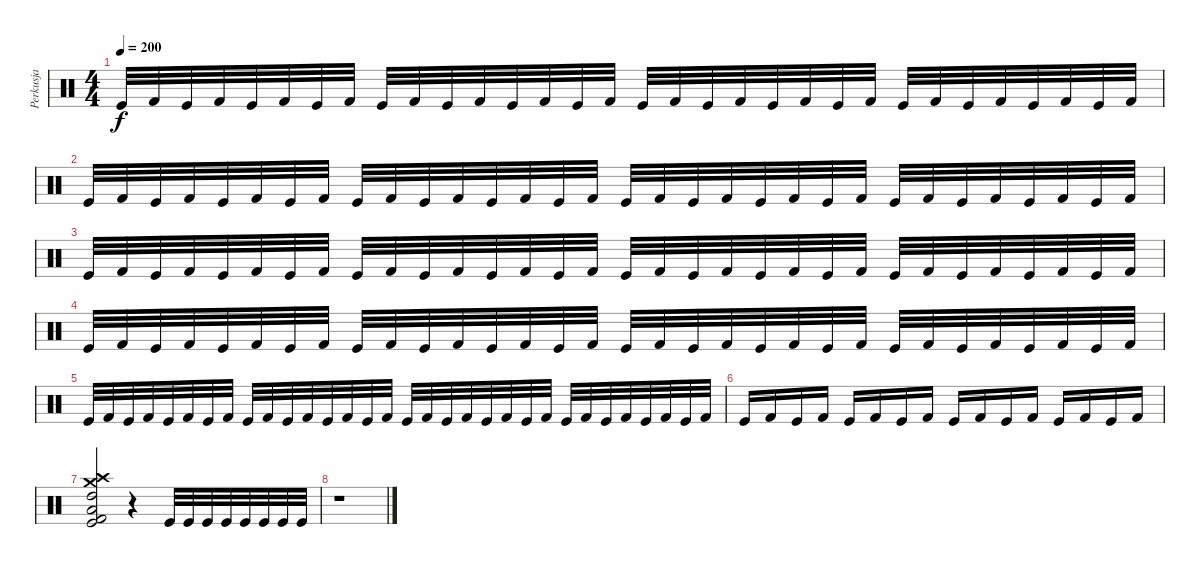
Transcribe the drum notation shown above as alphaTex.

\track ("Perkusja" "Perkusja") {instrument percussion}
\staff {score}
\articulation defaults
\ts (4 4)
\tempo 200
\clef neutral
\ks c "Kick (hit)".32{dy f} "Kick (hit) 2".32 "Kick (hit)".32 "Kick (hit) 2".32 "Kick (hit)".32 "Kick (hit) 2".32 "Kick (hit)".32 "Kick (hit) 2".32 "Kick (hit)".32 "Kick (hit) 2".32 "Kick (hit)".32 "Kick (hit) 2".32 "Kick (hit)".32 "Kick (hit) 2".32 "Kick (hit)".32 "Kick (hit) 2".32 "Kick (hit)".32 "Kick (hit) 2".32 "Kick (hit)".32 "Kick (hit) 2".32 "Kick (hit)".32 "Kick (hit) 2".32 "Kick (hit)".32 "Kick (hit) 2".32 "Kick (hit)".32 "Kick (hit) 2".32 "Kick (hit)".32 "Kick (hit) 2".32 "Kick (hit)".32 "Kick (hit) 2".32 "Kick (hit)".32 "Kick (hit) 2".32
|
"Kick (hit)".32 "Kick (hit) 2".32 "Kick (hit)".32 "Kick (hit) 2".32 "Kick (hit)".32 "Kick (hit) 2".32 "Kick (hit)".32 "Kick (hit) 2".32 "Kick (hit)".32 "Kick (hit) 2".32 "Kick (hit)".32 "Kick (hit) 2".32 "Kick (hit)".32 "Kick (hit) 2".32 "Kick (hit)".32 "Kick (hit) 2".32 "Kick (hit)".32 "Kick (hit) 2".32 "Kick (hit)".32 "Kick (hit) 2".32 "Kick (hit)".32 "Kick (hit) 2".32 "Kick (hit)".32 "Kick (hit) 2".32 "Kick (hit)".32 "Kick (hit) 2".32 "Kick (hit)".32 "Kick (hit) 2".32 "Kick (hit)".32 "Kick (hit) 2".32 "Kick (hit)".32 "Kick (hit) 2".32 |
"Kick (hit)".32 "Kick (hit) 2".32 "Kick (hit)".32 "Kick (hit) 2".32 "Kick (hit)".32 "Kick (hit) 2".32 "Kick (hit)".32 "Kick (hit) 2".32 "Kick (hit)".32 "Kick (hit) 2".32 "Kick (hit)".32 "Kick (hit) 2".32 "Kick (hit)".32 "Kick (hit) 2".32 "Kick (hit)".32 "Kick (hit) 2".32 "Kick (hit)".32 "Kick (hit) 2".32 "Kick (hit)".32 "Kick (hit) 2".32 "Kick (hit)".32 "Kick (hit) 2".32 "Kick (hit)".32 "Kick (hit) 2".32 "Kick (hit)".32 "Kick (hit) 2".32 "Kick (hit)".32 "Kick (hit) 2".32 "Kick (hit)".32 "Kick (hit) 2".32 "Kick (hit)".32 "Kick (hit) 2".32 |
"Kick (hit)".32 "Kick (hit) 2".32 "Kick (hit)".32 "Kick (hit) 2".32 "Kick (hit)".32 "Kick (hit) 2".32 "Kick (hit)".32 "Kick (hit) 2".32 "Kick (hit)".32 "Kick (hit) 2".32 "Kick (hit)".32 "Kick (hit) 2".32 "Kick (hit)".32 "Kick (hit) 2".32 "Kick (hit)".32 "Kick (hit) 2".32 "Kick (hit)".32 "Kick (hit) 2".32 "Kick (hit)".32 "Kick (hit) 2".32 "Kick (hit)".32 "Kick (hit) 2".32 "Kick (hit)".32 "Kick (hit) 2".32 "Kick (hit)".32 "Kick (hit) 2".32 "Kick (hit)".32 "Kick (hit) 2".32 "Kick (hit)".32 "Kick (hit) 2".32 "Kick (hit)".32 "Kick (hit) 2".32 |
"Kick (hit)".32 "Kick (hit) 2".32 "Kick (hit)".32 "Kick (hit) 2".32 "Kick (hit)".32 "Kick (hit) 2".32 "Kick (hit)".32 "Kick (hit) 2".32 "Kick (hit)".32 "Kick (hit) 2".32 "Kick (hit)".32 "Kick (hit) 2".32 "Kick (hit)".32 "Kick (hit) 2".32 "Kick (hit)".32 "Kick (hit) 2".32 "Kick (hit)".32 "Kick (hit) 2".32 "Kick (hit)".32 "Kick (hit) 2".32 "Kick (hit)".32 "Kick (hit) 2".32 "Kick (hit)".32 "Kick (hit) 2".32 "Kick (hit)".32 "Kick (hit) 2".32 "Kick (hit)".32 "Kick (hit) 2".32 "Kick (hit)".32 "Kick (hit) 2".32 "Kick (hit)".32 "Kick (hit) 2".32 |
"Kick (hit)".16 "Kick (hit) 2".16 "Kick (hit)".16 "Kick (hit) 2".16 "Kick (hit)".16 "Kick (hit) 2".16 "Kick (hit)".16 "Kick (hit) 2".16 "Kick (hit)".16 "Kick (hit) 2".16 "Kick (hit)".16 "Kick (hit) 2".16 "Kick (hit)".16 "Kick (hit) 2".16 "Kick (hit)".16 "Kick (hit) 2".16 |
("Crash medium (hit)" "Crash high (hit)" "Kick (hit) 2" "Kick (hit)" "High Tom (hit)" "Low Tom (hit)").2 r.4 "Kick (hit)".32 "Kick (hit)".32 "Kick (hit)".32 "Kick (hit)".32 "Kick (hit)".32 "Kick (hit)".32 "Kick (hit)".32 "Kick (hit)".32 |
r.1
